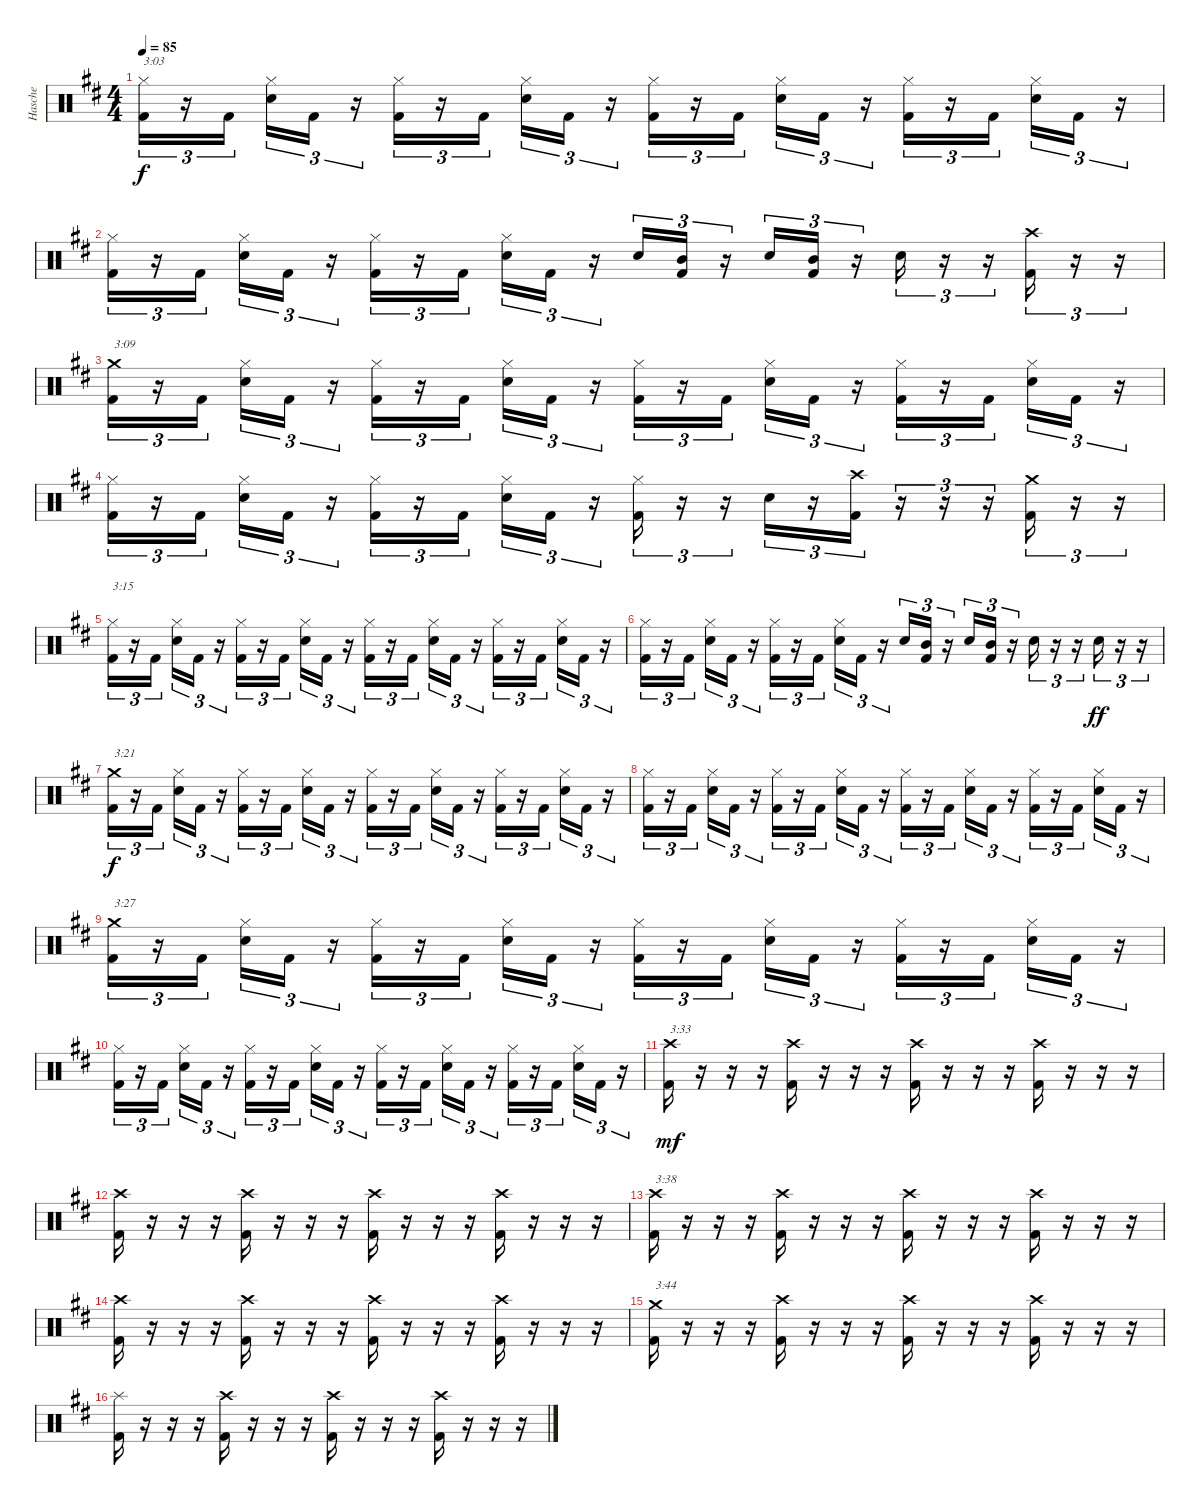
\track ("Hasche" "Hasche") {instrument percussion}
\staff {score}
\articulation defaults
\ts (4 4)
\tempo 85
\clef neutral
\ks bminor
("Hi-Hat (closed)" "Kick (hit) 2").16{tu (3 2) txt "3:03" dy f} r.16{tu (3 2)} "Kick (hit) 2".16{tu (3 2) beam splitsecondary} ("Hi-Hat (closed)" "Snare (hit) 2").16{tu (3 2)} "Kick (hit) 2".16{tu (3 2)} r.16{tu (3 2)} ("Hi-Hat (closed)" "Kick (hit) 2").16{tu (3 2)} r.16{tu (3 2)} "Kick (hit) 2".16{tu (3 2) beam splitsecondary} ("Hi-Hat (closed)" "Snare (hit) 2").16{tu (3 2)} "Kick (hit) 2".16{tu (3 2)} r.16{tu (3 2)} ("Hi-Hat (closed)" "Kick (hit) 2").16{tu (3 2)} r.16{tu (3 2)} "Kick (hit) 2".16{tu (3 2) beam splitsecondary} ("Hi-Hat (closed)" "Snare (hit) 2").16{tu (3 2)} "Kick (hit) 2".16{tu (3 2)} r.16{tu (3 2)} ("Hi-Hat (closed)" "Kick (hit) 2").16{tu (3 2)} r.16{tu (3 2)} "Kick (hit) 2".16{tu (3 2) beam splitsecondary} ("Hi-Hat (closed)" "Snare (hit) 2").16{tu (3 2)} "Kick (hit) 2".16{tu (3 2)} r.16{tu (3 2)} |
("Hi-Hat (closed)" "Kick (hit) 2").16{tu (3 2)} r.16{tu (3 2)} "Kick (hit) 2".16{tu (3 2) beam splitsecondary} ("Hi-Hat (closed)" "Snare (hit) 2").16{tu (3 2)} "Kick (hit) 2".16{tu (3 2)} r.16{tu (3 2)} ("Hi-Hat (closed)" "Kick (hit) 2").16{tu (3 2)} r.16{tu (3 2)} "Kick (hit) 2".16{tu (3 2) beam splitsecondary} ("Hi-Hat (closed)" "Snare (hit) 2").16{tu (3 2)} "Kick (hit) 2".16{tu (3 2)} r.16{tu (3 2)} "Snare (hit) 2".16{tu (3 2)} ("Mid Tom (hit)" "Kick (hit) 2").16{tu (3 2)} r.16{tu (3 2)} "Snare (hit) 2".16{tu (3 2)} ("Mid Tom (hit)" "Kick (hit) 2").16{tu (3 2)} r.16{tu (3 2)} "Snare (hit) 2".16{tu (3 2)} r.16{tu (3 2)} r.16{tu (3 2)} ("Crash high (hit)" "Kick (hit) 2").16{tu (3 2)} r.16{tu (3 2)} r.16{tu (3 2)} |
("Crash medium (hit)" "Kick (hit) 2").16{tu (3 2) txt "3:09"} r.16{tu (3 2)} "Kick (hit) 2".16{tu (3 2) beam splitsecondary} ("Hi-Hat (closed)" "Snare (hit) 2").16{tu (3 2)} "Kick (hit) 2".16{tu (3 2)} r.16{tu (3 2)} ("Hi-Hat (closed)" "Kick (hit) 2").16{tu (3 2)} r.16{tu (3 2)} "Kick (hit) 2".16{tu (3 2) beam splitsecondary} ("Hi-Hat (closed)" "Snare (hit) 2").16{tu (3 2)} "Kick (hit) 2".16{tu (3 2)} r.16{tu (3 2)} ("Hi-Hat (closed)" "Kick (hit) 2").16{tu (3 2)} r.16{tu (3 2)} "Kick (hit) 2".16{tu (3 2) beam splitsecondary} ("Hi-Hat (closed)" "Snare (hit) 2").16{tu (3 2)} "Kick (hit) 2".16{tu (3 2)} r.16{tu (3 2)} ("Hi-Hat (closed)" "Kick (hit) 2").16{tu (3 2)} r.16{tu (3 2)} "Kick (hit) 2".16{tu (3 2) beam splitsecondary} ("Hi-Hat (closed)" "Snare (hit) 2").16{tu (3 2)} "Kick (hit) 2".16{tu (3 2)} r.16{tu (3 2)} |
("Hi-Hat (closed)" "Kick (hit) 2").16{tu (3 2)} r.16{tu (3 2)} "Kick (hit) 2".16{tu (3 2) beam splitsecondary} ("Hi-Hat (closed)" "Snare (hit) 2").16{tu (3 2)} "Kick (hit) 2".16{tu (3 2)} r.16{tu (3 2)} ("Hi-Hat (closed)" "Kick (hit) 2").16{tu (3 2)} r.16{tu (3 2)} "Kick (hit) 2".16{tu (3 2) beam splitsecondary} ("Hi-Hat (closed)" "Snare (hit) 2").16{tu (3 2)} "Kick (hit) 2".16{tu (3 2)} r.16{tu (3 2)} ("Hi-Hat (closed)" "Kick (hit) 2").16{tu (3 2)} r.16{tu (3 2)} r.16{tu (3 2)} "Snare (hit) 2".16{tu (3 2)} r.16{tu (3 2)} ("Crash high (hit)" "Kick (hit) 2").16{tu (3 2)} r.16{tu (3 2)} r.16{tu (3 2)} r.16{tu (3 2)} ("Crash medium (hit)" "Kick (hit) 2").16{tu (3 2)} r.16{tu (3 2)} r.16{tu (3 2)} |
("Hi-Hat (closed)" "Kick (hit) 2").16{tu (3 2) txt "3:15"} r.16{tu (3 2)} "Kick (hit) 2".16{tu (3 2) beam splitsecondary} ("Hi-Hat (closed)" "Snare (hit) 2").16{tu (3 2)} "Kick (hit) 2".16{tu (3 2)} r.16{tu (3 2)} ("Hi-Hat (closed)" "Kick (hit) 2").16{tu (3 2)} r.16{tu (3 2)} "Kick (hit) 2".16{tu (3 2) beam splitsecondary} ("Hi-Hat (closed)" "Snare (hit) 2").16{tu (3 2)} "Kick (hit) 2".16{tu (3 2)} r.16{tu (3 2)} ("Hi-Hat (closed)" "Kick (hit) 2").16{tu (3 2)} r.16{tu (3 2)} "Kick (hit) 2".16{tu (3 2) beam splitsecondary} ("Hi-Hat (closed)" "Snare (hit) 2").16{tu (3 2)} "Kick (hit) 2".16{tu (3 2)} r.16{tu (3 2)} ("Hi-Hat (closed)" "Kick (hit) 2").16{tu (3 2)} r.16{tu (3 2)} "Kick (hit) 2".16{tu (3 2) beam splitsecondary} ("Hi-Hat (closed)" "Snare (hit) 2").16{tu (3 2)} "Kick (hit) 2".16{tu (3 2)} r.16{tu (3 2)} |
("Hi-Hat (closed)" "Kick (hit) 2").16{tu (3 2)} r.16{tu (3 2)} "Kick (hit) 2".16{tu (3 2) beam splitsecondary} ("Hi-Hat (closed)" "Snare (hit) 2").16{tu (3 2)} "Kick (hit) 2".16{tu (3 2)} r.16{tu (3 2)} ("Hi-Hat (closed)" "Kick (hit) 2").16{tu (3 2)} r.16{tu (3 2)} "Kick (hit) 2".16{tu (3 2) beam splitsecondary} ("Hi-Hat (closed)" "Snare (hit) 2").16{tu (3 2)} "Kick (hit) 2".16{tu (3 2)} r.16{tu (3 2)} "Snare (hit) 2".16{tu (3 2)} ("Mid Tom (hit)" "Kick (hit) 2").16{tu (3 2)} r.16{tu (3 2)} "Snare (hit) 2".16{tu (3 2)} ("Mid Tom (hit)" "Kick (hit) 2").16{tu (3 2)} r.16{tu (3 2)} "Snare (hit) 2".16{tu (3 2)} r.16{tu (3 2)} r.16{tu (3 2)} "Snare (hit) 2".16{tu (3 2) dy ff} r.16{tu (3 2)} r.16{tu (3 2)} |
("Crash medium (hit)" "Kick (hit) 2").16{tu (3 2) txt "3:21" dy f} r.16{tu (3 2)} "Kick (hit) 2".16{tu (3 2) beam splitsecondary} ("Hi-Hat (closed)" "Snare (hit) 2").16{tu (3 2)} "Kick (hit) 2".16{tu (3 2)} r.16{tu (3 2)} ("Hi-Hat (closed)" "Kick (hit) 2").16{tu (3 2)} r.16{tu (3 2)} "Kick (hit) 2".16{tu (3 2) beam splitsecondary} ("Hi-Hat (closed)" "Snare (hit) 2").16{tu (3 2)} "Kick (hit) 2".16{tu (3 2)} r.16{tu (3 2)} ("Hi-Hat (closed)" "Kick (hit) 2").16{tu (3 2)} r.16{tu (3 2)} "Kick (hit) 2".16{tu (3 2) beam splitsecondary} ("Hi-Hat (closed)" "Snare (hit) 2").16{tu (3 2)} "Kick (hit) 2".16{tu (3 2)} r.16{tu (3 2)} ("Hi-Hat (closed)" "Kick (hit) 2").16{tu (3 2)} r.16{tu (3 2)} "Kick (hit) 2".16{tu (3 2) beam splitsecondary} ("Hi-Hat (closed)" "Snare (hit) 2").16{tu (3 2)} "Kick (hit) 2".16{tu (3 2)} r.16{tu (3 2)} |
("Hi-Hat (closed)" "Kick (hit) 2").16{tu (3 2)} r.16{tu (3 2)} "Kick (hit) 2".16{tu (3 2) beam splitsecondary} ("Hi-Hat (closed)" "Snare (hit) 2").16{tu (3 2)} "Kick (hit) 2".16{tu (3 2)} r.16{tu (3 2)} ("Hi-Hat (closed)" "Kick (hit) 2").16{tu (3 2)} r.16{tu (3 2)} "Kick (hit) 2".16{tu (3 2) beam splitsecondary} ("Hi-Hat (closed)" "Snare (hit) 2").16{tu (3 2)} "Kick (hit) 2".16{tu (3 2)} r.16{tu (3 2)} ("Hi-Hat (closed)" "Kick (hit) 2").16{tu (3 2)} r.16{tu (3 2)} "Kick (hit) 2".16{tu (3 2) beam splitsecondary} ("Hi-Hat (closed)" "Snare (hit) 2").16{tu (3 2)} "Kick (hit) 2".16{tu (3 2)} r.16{tu (3 2)} ("Hi-Hat (closed)" "Kick (hit) 2").16{tu (3 2)} r.16{tu (3 2)} "Kick (hit) 2".16{tu (3 2) beam splitsecondary} ("Hi-Hat (closed)" "Snare (hit) 2").16{tu (3 2)} "Kick (hit) 2".16{tu (3 2)} r.16{tu (3 2)} |
("Crash medium (hit)" "Kick (hit) 2").16{tu (3 2) txt "3:27"} r.16{tu (3 2)} "Kick (hit) 2".16{tu (3 2) beam splitsecondary} ("Hi-Hat (closed)" "Snare (hit) 2").16{tu (3 2)} "Kick (hit) 2".16{tu (3 2)} r.16{tu (3 2)} ("Hi-Hat (closed)" "Kick (hit) 2").16{tu (3 2)} r.16{tu (3 2)} "Kick (hit) 2".16{tu (3 2) beam splitsecondary} ("Hi-Hat (closed)" "Snare (hit) 2").16{tu (3 2)} "Kick (hit) 2".16{tu (3 2)} r.16{tu (3 2)} ("Hi-Hat (closed)" "Kick (hit) 2").16{tu (3 2)} r.16{tu (3 2)} "Kick (hit) 2".16{tu (3 2) beam splitsecondary} ("Hi-Hat (closed)" "Snare (hit) 2").16{tu (3 2)} "Kick (hit) 2".16{tu (3 2)} r.16{tu (3 2)} ("Hi-Hat (closed)" "Kick (hit) 2").16{tu (3 2)} r.16{tu (3 2)} "Kick (hit) 2".16{tu (3 2) beam splitsecondary} ("Hi-Hat (closed)" "Snare (hit) 2").16{tu (3 2)} "Kick (hit) 2".16{tu (3 2)} r.16{tu (3 2)} |
("Hi-Hat (closed)" "Kick (hit) 2").16{tu (3 2)} r.16{tu (3 2)} "Kick (hit) 2".16{tu (3 2) beam splitsecondary} ("Hi-Hat (closed)" "Snare (hit) 2").16{tu (3 2)} "Kick (hit) 2".16{tu (3 2)} r.16{tu (3 2)} ("Hi-Hat (closed)" "Kick (hit) 2").16{tu (3 2)} r.16{tu (3 2)} "Kick (hit) 2".16{tu (3 2) beam splitsecondary} ("Hi-Hat (closed)" "Snare (hit) 2").16{tu (3 2)} "Kick (hit) 2".16{tu (3 2)} r.16{tu (3 2)} ("Hi-Hat (closed)" "Kick (hit) 2").16{tu (3 2)} r.16{tu (3 2)} "Kick (hit) 2".16{tu (3 2) beam splitsecondary} ("Hi-Hat (closed)" "Snare (hit) 2").16{tu (3 2)} "Kick (hit) 2".16{tu (3 2)} r.16{tu (3 2)} ("Hi-Hat (closed)" "Kick (hit) 2").16{tu (3 2)} r.16{tu (3 2)} "Kick (hit) 2".16{tu (3 2) beam splitsecondary} ("Hi-Hat (closed)" "Snare (hit) 2").16{tu (3 2)} "Kick (hit) 2".16{tu (3 2)} r.16{tu (3 2)} |
("Crash high (hit)" "Kick (hit) 2").16{txt "3:33" dy mf} r.16{volume 0} r.16 r.16 ("Crash high (hit)" "Kick (hit) 2").16{volume 13} r.16{volume 0} r.16 r.16 ("Crash high (hit)" "Kick (hit) 2").16{volume 13} r.16{volume 0} r.16 r.16 ("Crash high (hit)" "Kick (hit) 2").16{volume 13} r.16{volume 0} r.16 r.16 |
("Crash high (hit)" "Kick (hit) 2").16{volume 13} r.16{volume 0} r.16 r.16 ("Crash high (hit)" "Kick (hit) 2").16{volume 13} r.16{volume 0} r.16 r.16 ("Crash high (hit)" "Kick (hit) 2").16{volume 13} r.16{volume 0} r.16 r.16 ("Crash high (hit)" "Kick (hit) 2").16{volume 13} r.16{volume 0} r.16 r.16 |
("Crash high (hit)" "Kick (hit) 2").16{txt "3:38" volume 13} r.16{volume 0} r.16 r.16 ("Crash high (hit)" "Kick (hit) 2").16{volume 13} r.16{volume 0} r.16 r.16 ("Crash high (hit)" "Kick (hit) 2").16{volume 13} r.16{volume 0} r.16 r.16 ("Crash high (hit)" "Kick (hit) 2").16{volume 13} r.16{volume 0} r.16 r.16 |
("Crash high (hit)" "Kick (hit) 2").16{volume 13} r.16{volume 0} r.16 r.16 ("Crash high (hit)" "Kick (hit) 2").16{volume 13} r.16{volume 0} r.16 r.16 ("Crash high (hit)" "Kick (hit) 2").16{volume 13} r.16{volume 0} r.16 r.16 ("Crash high (hit)" "Kick (hit) 2").16{volume 13} r.16{volume 0} r.16 r.16 |
("Crash medium (hit)" "Kick (hit) 2").16{txt "3:44" volume 13} r.16{volume 0} r.16 r.16 ("Crash high (hit)" "Kick (hit) 2").16{volume 13} r.16{volume 0} r.16 r.16 ("Crash high (hit)" "Kick (hit) 2").16{volume 13} r.16{volume 0} r.16 r.16 ("Crash high (hit)" "Kick (hit) 2").16{volume 13} r.16{volume 0} r.16 r.16 |
("Splash (hit)" "Kick (hit) 2").16{volume 13} r.16{volume 0} r.16 r.16 ("Crash high (hit)" "Kick (hit) 2").16{volume 13} r.16{volume 0} r.16 r.16 ("Crash high (hit)" "Kick (hit) 2").16{volume 13} r.16{volume 0} r.16 r.16 ("Crash high (hit)" "Kick (hit) 2").16{volume 13} r.16{volume 0} r.16 r.16
